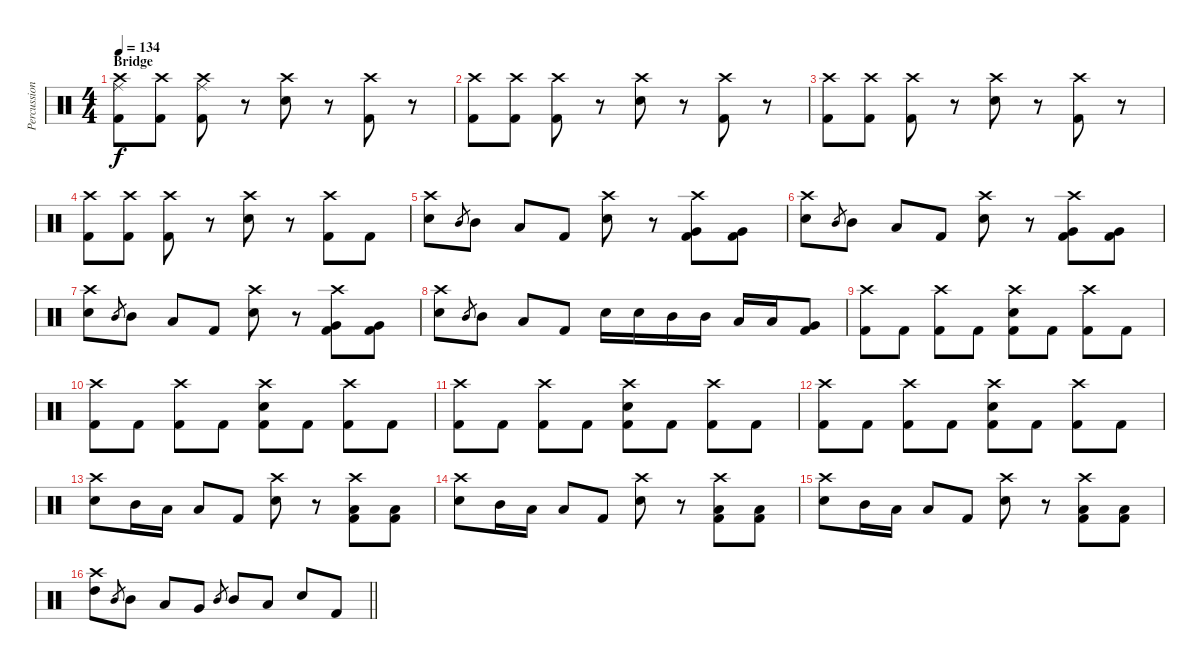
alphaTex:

\track ("Percussion" "Percussion") {instrument percussion}
\staff {score}
\articulation defaults
\ts (4 4)
\section ("" "Bridge")
\tempo 134
\clef neutral
\ks c
("Ride (middle)" "Crash high (hit)" "Kick (hit) 2").8{dy f} ("Crash high (hit)" "Kick (hit) 2").8 ("Ride (middle)" "Crash high (hit)" "Kick (hit) 2").8 r.8 ("Crash high (hit)" "Snare (hit) 2").8 r.8 ("Crash high (hit)" "Kick (hit) 2").8 r.8 |
("Crash high (hit)" "Kick (hit) 2").8 ("Crash high (hit)" "Kick (hit) 2").8 ("Crash high (hit)" "Kick (hit) 2").8 r.8 ("Crash high (hit)" "Snare (hit) 2").8 r.8 ("Crash high (hit)" "Kick (hit) 2").8 r.8 |
("Crash high (hit)" "Kick (hit) 2").8 ("Crash high (hit)" "Kick (hit) 2").8 ("Crash high (hit)" "Kick (hit) 2").8 r.8 ("Crash high (hit)" "Snare (hit) 2").8 r.8 ("Crash high (hit)" "Kick (hit) 2").8 r.8 |
("Crash high (hit)" "Kick (hit) 2").8 ("Crash high (hit)" "Kick (hit) 2").8 ("Crash high (hit)" "Kick (hit) 2").8 r.8 ("Crash high (hit)" "Snare (hit) 2").8 r.8 ("Crash high (hit)" "Kick (hit) 2").8 "Kick (hit) 2".8 |
("Crash high (hit)" "Snare (hit) 2").8 "Mid Tom (hit)".8{gr} "Mid Tom (hit)".8 "Low Tom (hit)".8 "Kick (hit) 2".8 ("Crash high (hit)" "Snare (hit) 2").8 r.8 ("Crash high (hit)" "Very Low Tom (hit)" "Kick (hit) 2").8 ("Very Low Tom (hit)" "Kick (hit) 2").8 |
("Crash high (hit)" "Snare (hit) 2").8 "Mid Tom (hit)".8{gr} "Mid Tom (hit)".8 "Low Tom (hit)".8 "Kick (hit) 2".8 ("Crash high (hit)" "Snare (hit) 2").8 r.8 ("Crash high (hit)" "Very Low Tom (hit)" "Kick (hit) 2").8 ("Very Low Tom (hit)" "Kick (hit) 2").8 |
("Crash high (hit)" "Snare (hit) 2").8 "Mid Tom (hit)".8{gr} "Mid Tom (hit)".8 "Low Tom (hit)".8 "Kick (hit) 2".8 ("Crash high (hit)" "Snare (hit) 2").8 r.8 ("Crash high (hit)" "Very Low Tom (hit)" "Kick (hit) 2").8 ("Very Low Tom (hit)" "Kick (hit) 2").8 |
("Crash high (hit)" "Snare (hit) 2").8 "Mid Tom (hit)".8{gr} "Mid Tom (hit)".8 "Low Tom (hit)".8 "Kick (hit) 2".8 "Snare (hit) 2".16 "Snare (hit) 2".16 "Mid Tom (hit)".16 "Mid Tom (hit)".16 "Low Tom (hit)".16 "Low Tom (hit)".16 ("Very Low Tom (hit)" "Kick (hit) 2").8 |
("Crash high (hit)" "Kick (hit) 2").8 "Kick (hit) 2".8 ("Crash high (hit)" "Kick (hit) 2").8 "Kick (hit) 2".8 ("Crash high (hit)" "Snare (hit) 2" "Kick (hit) 2").8 "Kick (hit) 2".8 ("Crash high (hit)" "Kick (hit) 2").8 "Kick (hit) 2".8 |
("Crash high (hit)" "Kick (hit) 2").8 "Kick (hit) 2".8 ("Crash high (hit)" "Kick (hit) 2").8 "Kick (hit) 2".8 ("Crash high (hit)" "Snare (hit) 2" "Kick (hit) 2").8 "Kick (hit) 2".8 ("Crash high (hit)" "Kick (hit) 2").8 "Kick (hit) 2".8 |
("Crash high (hit)" "Kick (hit) 2").8 "Kick (hit) 2".8 ("Crash high (hit)" "Kick (hit) 2").8 "Kick (hit) 2".8 ("Crash high (hit)" "Snare (hit) 2" "Kick (hit) 2").8 "Kick (hit) 2".8 ("Crash high (hit)" "Kick (hit) 2").8 "Kick (hit) 2".8 |
("Crash high (hit)" "Kick (hit) 2").8 "Kick (hit) 2".8 ("Crash high (hit)" "Kick (hit) 2").8 "Kick (hit) 2".8 ("Crash high (hit)" "Snare (hit) 2" "Kick (hit) 2").8 "Kick (hit) 2".8 ("Crash high (hit)" "Kick (hit) 2").8 "Kick (hit) 2".8 |
("Crash high (hit)" "Snare (hit) 2").8 "Mid Tom (hit)".16 "Low Tom (hit)".16 "Low Tom (hit)".8 "Kick (hit) 2".8 ("Crash high (hit)" "Snare (hit) 2").8 r.8 ("Crash high (hit)" "Low Tom (hit)" "Kick (hit) 2").8 ("Low Tom (hit)" "Kick (hit) 2").8 |
("Crash high (hit)" "Snare (hit) 2").8 "Mid Tom (hit)".16 "Low Tom (hit)".16 "Low Tom (hit)".8 "Kick (hit) 2".8 ("Crash high (hit)" "Snare (hit) 2").8 r.8 ("Crash high (hit)" "Low Tom (hit)" "Kick (hit) 2").8 ("Low Tom (hit)" "Kick (hit) 2").8 |
("Crash high (hit)" "Snare (hit) 2").8 "Mid Tom (hit)".16 "Low Tom (hit)".16 "Low Tom (hit)".8 "Kick (hit) 2".8 ("Crash high (hit)" "Snare (hit) 2").8 r.8 ("Crash high (hit)" "Low Tom (hit)" "Kick (hit) 2").8 ("Low Tom (hit)" "Kick (hit) 2").8 |
\barLineRight lightlight
("Crash high (hit)" "High Tom (hit)").8 "Mid Tom (hit)".8{gr} "Mid Tom (hit)".8 "Low Tom (hit)".8 "Very Low Tom (hit)".8 "Mid Tom (hit)".8{gr} "Mid Tom (hit)".8 "Low Tom (hit)".8 "Snare (hit) 2".8 "Kick (hit) 2".8
